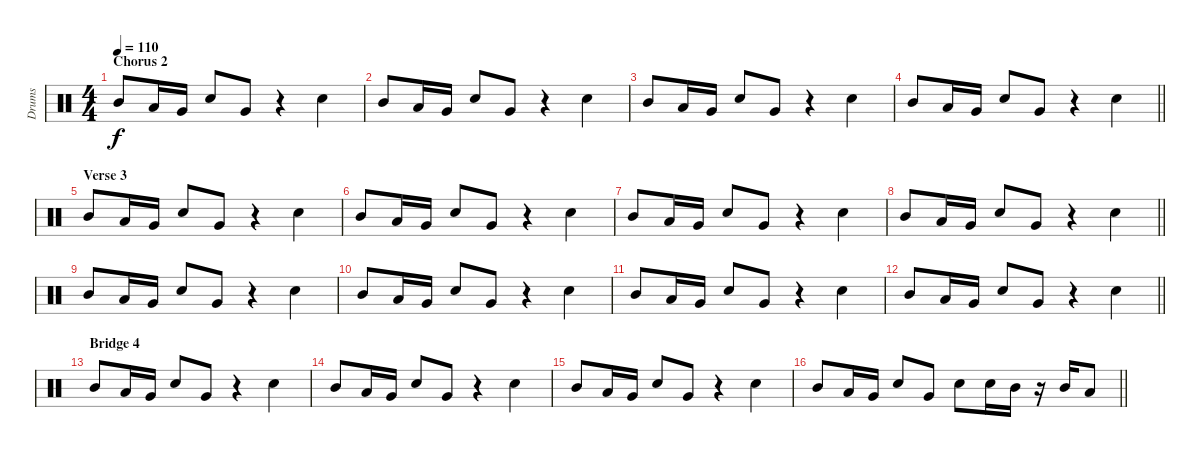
\track ("Drums" "Drums") {instrument percussion}
\staff {score}
\articulation defaults
\ts (4 4)
\section ("" "Chorus 2")
\tempo 110
\clef neutral
\ks c "Mid Tom (hit)".8{dy f} "Low Tom (hit)".16 "Very Low Tom (hit)".16 "Snare (hit) 2".8 "Very Low Tom (hit)".8
r.4 "Snare (hit) 2".4 |
"Mid Tom (hit)".8 "Low Tom (hit)".16 "Very Low Tom (hit)".16 "Snare (hit) 2".8 "Very Low Tom (hit)".8 r.4 "Snare (hit) 2".4 |
"Mid Tom (hit)".8 "Low Tom (hit)".16 "Very Low Tom (hit)".16 "Snare (hit) 2".8 "Very Low Tom (hit)".8 r.4 "Snare (hit) 2".4 |
\barLineRight lightlight "Mid Tom (hit)".8 "Low Tom (hit)".16 "Very Low Tom (hit)".16 "Snare (hit) 2".8 "Very Low Tom (hit)".8
r.4 "Snare (hit) 2".4 |
\section ("" "Verse 3")
"Mid Tom (hit)".8 "Low Tom (hit)".16 "Very Low Tom (hit)".16 "Snare (hit) 2".8 "Very Low Tom (hit)".8 r.4 "Snare (hit) 2".4 |
"Mid Tom (hit)".8 "Low Tom (hit)".16 "Very Low Tom (hit)".16 "Snare (hit) 2".8 "Very Low Tom (hit)".8 r.4 "Snare (hit) 2".4 |
"Mid Tom (hit)".8 "Low Tom (hit)".16 "Very Low Tom (hit)".16 "Snare (hit) 2".8 "Very Low Tom (hit)".8 r.4 "Snare (hit) 2".4 |
\barLineRight lightlight "Mid Tom (hit)".8 "Low Tom (hit)".16 "Very Low Tom (hit)".16 "Snare (hit) 2".8 "Very Low Tom (hit)".8
r.4 "Snare (hit) 2".4 |
"Mid Tom (hit)".8 "Low Tom (hit)".16 "Very Low Tom (hit)".16 "Snare (hit) 2".8 "Very Low Tom (hit)".8 r.4 "Snare (hit) 2".4 |
"Mid Tom (hit)".8 "Low Tom (hit)".16 "Very Low Tom (hit)".16 "Snare (hit) 2".8 "Very Low Tom (hit)".8 r.4 "Snare (hit) 2".4 |
"Mid Tom (hit)".8 "Low Tom (hit)".16 "Very Low Tom (hit)".16 "Snare (hit) 2".8 "Very Low Tom (hit)".8 r.4 "Snare (hit) 2".4 |
\barLineRight lightlight "Mid Tom (hit)".8 "Low Tom (hit)".16 "Very Low Tom (hit)".16 "Snare (hit) 2".8 "Very Low Tom (hit)".8
r.4 "Snare (hit) 2".4 |
\section ("" "Bridge 4")
"Mid Tom (hit)".8 "Low Tom (hit)".16 "Very Low Tom (hit)".16 "Snare (hit) 2".8 "Very Low Tom (hit)".8 r.4 "Snare (hit) 2".4 |
"Mid Tom (hit)".8 "Low Tom (hit)".16 "Very Low Tom (hit)".16 "Snare (hit) 2".8 "Very Low Tom (hit)".8 r.4 "Snare (hit) 2".4 |
"Mid Tom (hit)".8 "Low Tom (hit)".16 "Very Low Tom (hit)".16 "Snare (hit) 2".8 "Very Low Tom (hit)".8 r.4 "Snare (hit) 2".4 |
\barLineRight lightlight "Mid Tom (hit)".8 "Low Tom (hit)".16 "Very Low Tom (hit)".16 "Snare (hit) 2".8 "Very Low Tom (hit)".8 "Snare (hit) 2".8 "Snare (hit) 2".16 "Mid Tom (hit)".16
r.16 "Mid Tom (hit)".16 "Low Tom (hit)".8
